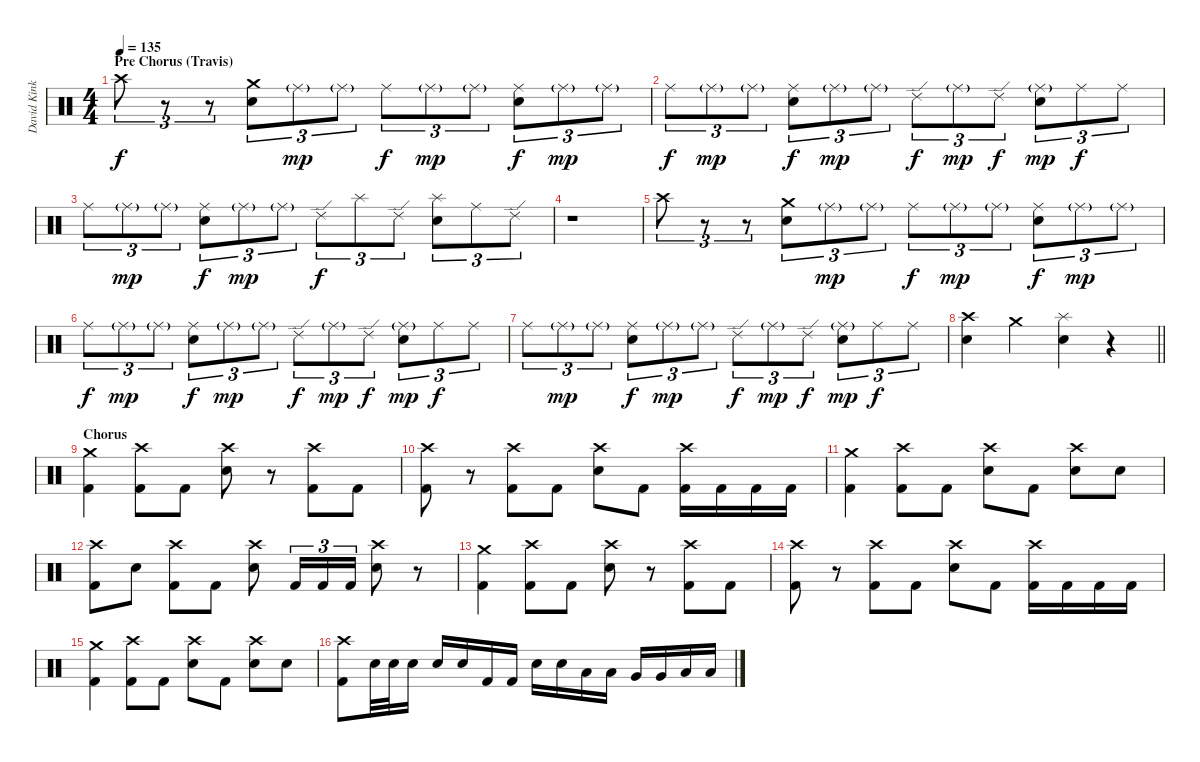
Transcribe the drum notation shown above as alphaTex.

\track ("David Kinkade" "David Kink") {instrument percussion}
\staff {score}
\articulation defaults
\ts (4 4)
\section ("" "Pre Chorus (Travis)")
\tempo 135
\clef neutral
\ks c "Crash high (hit)".8{tu (3 2) dy f}
r.8{tu (3 2)} r.8{tu (3 2)} ("Crash medium (hit)" "Snare (hit) 2").8{tu (3 2)} "Ride (middle)"{g}.8{tu (3 2) dy mp} "Ride (middle)"{g}.8{tu (3 2)} "Ride (middle)".8{tu (3 2) dy f} "Ride (middle)"{g}.8{tu (3 2) dy mp} "Ride (middle)"{g}.8{tu (3 2)} ("Ride (middle)" "Snare (hit) 2").8{tu (3 2) dy f} "Ride (middle)"{g}.8{tu (3 2) dy mp} "Ride (middle)"{g}.8{tu (3 2)} |
"Ride (middle)".8{tu (3 2) dy f} "Ride (middle)"{g}.8{tu (3 2) dy mp} "Ride (middle)"{g}.8{tu (3 2)} ("Ride (middle)" "Snare (hit) 2").8{tu (3 2) dy f} "Ride (middle)"{g}.8{tu (3 2) dy mp} "Ride (middle)"{g}.8{tu (3 2)} "Ride (edge) 2".8{tu (3 2) dy f} "Ride (middle)"{g}.8{tu (3 2) dy mp} "Ride (edge) 2".8{tu (3 2) dy f} ("Ride (middle)"{g} "Snare (hit) 2").8{tu (3 2) dy mp} "Ride (middle)".8{tu (3 2) dy f} "Ride (middle)".8{tu (3 2)} |
"Ride (middle)".8{tu (3 2)} "Ride (middle)"{g}.8{tu (3 2) dy mp} "Ride (middle)"{g}.8{tu (3 2)} ("Ride (middle)" "Snare (hit) 2").8{tu (3 2) dy f} "Ride (middle)"{g}.8{tu (3 2) dy mp} "Ride (middle)"{g}.8{tu (3 2)} "Ride (edge) 2".8{tu (3 2) dy f} "Splash (hit)".8{tu (3 2)} "Ride (edge) 2".8{tu (3 2)} ("Splash (hit)" "Snare (hit) 2").8{tu (3 2)} "Ride (middle)".8{tu (3 2)} "Ride (edge) 2".8{tu (3 2)} |
r.1 |
"Crash high (hit)".8{tu (3 2)} r.8{tu (3 2)} r.8{tu (3 2)} ("Crash medium (hit)" "Snare (hit) 2").8{tu (3 2)} "Ride (middle)"{g}.8{tu (3 2) dy mp} "Ride (middle)"{g}.8{tu (3 2)} "Ride (middle)".8{tu (3 2) dy f} "Ride (middle)"{g}.8{tu (3 2) dy mp} "Ride (middle)"{g}.8{tu (3 2)} ("Ride (middle)" "Snare (hit) 2").8{tu (3 2) dy f} "Ride (middle)"{g}.8{tu (3 2) dy mp} "Ride (middle)"{g}.8{tu (3 2)} |
"Ride (middle)".8{tu (3 2) dy f} "Ride (middle)"{g}.8{tu (3 2) dy mp} "Ride (middle)"{g}.8{tu (3 2)} ("Ride (middle)" "Snare (hit) 2").8{tu (3 2) dy f} "Ride (middle)"{g}.8{tu (3 2) dy mp} "Ride (middle)"{g}.8{tu (3 2)} "Ride (edge) 2".8{tu (3 2) dy f} "Ride (middle)"{g}.8{tu (3 2) dy mp} "Ride (edge) 2".8{tu (3 2) dy f} ("Ride (middle)"{g} "Snare (hit) 2").8{tu (3 2) dy mp} "Ride (middle)".8{tu (3 2) dy f} "Ride (middle)".8{tu (3 2)} |
"Ride (middle)".8{tu (3 2)} "Ride (middle)"{g}.8{tu (3 2) dy mp} "Ride (middle)"{g}.8{tu (3 2)} ("Ride (middle)" "Snare (hit) 2").8{tu (3 2) dy f} "Ride (middle)"{g}.8{tu (3 2) dy mp} "Ride (middle)"{g}.8{tu (3 2)} "Ride (edge) 2".8{tu (3 2) dy f} "Ride (middle)"{g}.8{tu (3 2) dy mp} "Ride (edge) 2".8{tu (3 2) dy f} ("Ride (middle)"{g} "Snare (hit) 2").8{tu (3 2) dy mp} "Ride (middle)".8{tu (3 2) dy f} "Ride (middle)".8{tu (3 2)} |
\barLineRight lightlight
("Crash high (hit)" "Snare (hit) 2").4 "Crash medium (hit)".4 ("Splash (hit)" "Snare (hit) 2").4 r.4 |
\section ("" "Chorus")
("Crash medium (hit)" "Kick (hit) 2").4 ("Crash high (hit)" "Kick (hit) 2").8 "Kick (hit) 2".8 ("Crash high (hit)" "Snare (hit) 2").8 r.8 ("Crash high (hit)" "Kick (hit) 2").8 "Kick (hit) 2".8 |
("Crash high (hit)" "Kick (hit) 2").8 r.8 ("Crash high (hit)" "Kick (hit) 2").8 "Kick (hit) 2".8 ("Crash high (hit)" "Snare (hit) 2").8 "Kick (hit) 2".8 ("Crash high (hit)" "Kick (hit) 2").16 "Kick (hit) 2".16 "Kick (hit) 2".16 "Kick (hit) 2".16 |
("Crash medium (hit)" "Kick (hit) 2").4 ("Crash high (hit)" "Kick (hit) 2").8 "Kick (hit) 2".8 ("Crash high (hit)" "Snare (hit) 2").8 "Kick (hit) 2".8 ("Crash high (hit)" "Snare (hit) 2").8 "Snare (hit) 2".8 |
("Crash high (hit)" "Kick (hit) 2").8 "Snare (hit) 2".8 ("Crash high (hit)" "Kick (hit) 2").8 "Kick (hit) 2".8 ("Crash high (hit)" "Snare (hit) 2").8 "Kick (hit) 2".16{tu (3 2)} "Kick (hit) 2".16{tu (3 2)} "Kick (hit) 2".16{tu (3 2)} ("Crash high (hit)" "Snare (hit) 2").8 r.8 |
("Crash medium (hit)" "Kick (hit) 2").4 ("Crash high (hit)" "Kick (hit) 2").8 "Kick (hit) 2".8 ("Crash high (hit)" "Snare (hit) 2").8 r.8 ("Crash high (hit)" "Kick (hit) 2").8 "Kick (hit) 2".8 |
("Crash high (hit)" "Kick (hit) 2").8 r.8 ("Crash high (hit)" "Kick (hit) 2").8 "Kick (hit) 2".8 ("Crash high (hit)" "Snare (hit) 2").8 "Kick (hit) 2".8 ("Crash high (hit)" "Kick (hit) 2").16 "Kick (hit) 2".16 "Kick (hit) 2".16 "Kick (hit) 2".16 |
("Crash medium (hit)" "Kick (hit) 2").4 ("Crash high (hit)" "Kick (hit) 2").8 "Kick (hit) 2".8 ("Crash high (hit)" "Snare (hit) 2").8 "Kick (hit) 2".8 ("Crash high (hit)" "Snare (hit) 2").8 "Snare (hit) 2".8 |
("Crash high (hit)" "Kick (hit) 2").8 "Snare (hit) 2".32 "Snare (hit) 2".32 "Snare (hit) 2".16 "Snare (hit) 2".16 "Snare (hit) 2".16 "Kick (hit) 2".16 "Kick (hit) 2".16 "Snare (hit) 2".16 "Snare (hit) 2".16 "Low Tom (hit)".16 "Low Tom (hit)".16 "Very Low Tom (hit)".16 "Very Low Tom (hit)".16 "Low Floor Tom (hit)".16 "Low Floor Tom (hit)".16
